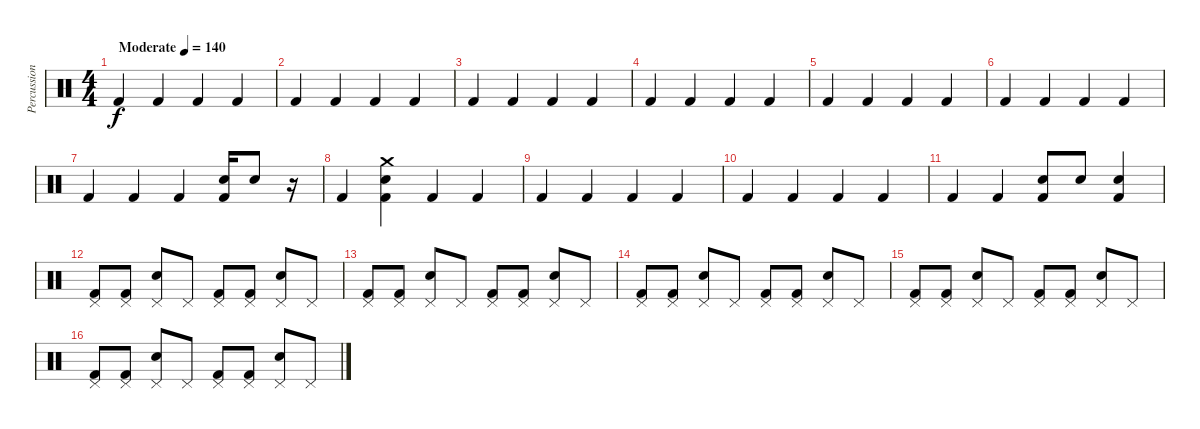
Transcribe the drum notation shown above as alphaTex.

\track ("Percussion" "Percussion") {instrument percussion}
\staff {score}
\articulation defaults
\ts (4 4)
\tempo (140 "Moderate")
\clef neutral
\ks c "Kick (hit) 2".4{dy f} "Kick (hit) 2".4 "Kick (hit) 2".4 "Kick (hit) 2".4
|
"Kick (hit) 2".4 "Kick (hit) 2".4 "Kick (hit) 2".4 "Kick (hit) 2".4 |
"Kick (hit) 2".4 "Kick (hit) 2".4 "Kick (hit) 2".4 "Kick (hit) 2".4 |
"Kick (hit) 2".4 "Kick (hit) 2".4 "Kick (hit) 2".4 "Kick (hit) 2".4 |
"Kick (hit) 2".4 "Kick (hit) 2".4 "Kick (hit) 2".4 "Kick (hit) 2".4 |
"Kick (hit) 2".4 "Kick (hit) 2".4 "Kick (hit) 2".4 "Kick (hit) 2".4 |
"Kick (hit) 2".4 "Kick (hit) 2".4 "Kick (hit) 2".4 ("Snare (hit) 2" "Kick (hit) 2").16 "Snare (hit) 2".8 r.16 |
"Kick (hit) 2".4 ("Crash medium (hit)" "Snare (hit) 2" "Kick (hit) 2").4 "Kick (hit) 2".4 "Kick (hit) 2".4 |
"Kick (hit) 2".4 "Kick (hit) 2".4 "Kick (hit) 2".4 "Kick (hit) 2".4 |
"Kick (hit) 2".4 "Kick (hit) 2".4 "Kick (hit) 2".4 "Kick (hit) 2".4 |
"Kick (hit) 2".4 "Kick (hit) 2".4 ("Snare (hit) 2" "Kick (hit) 2").8 "Snare (hit) 2".8 ("Snare (hit) 2" "Kick (hit) 2").4 |
("Pedal Hi-Hat (hit)" "Kick (hit) 2").8 ("Pedal Hi-Hat (hit)" "Kick (hit) 2").8 ("Pedal Hi-Hat (hit)" "Snare (hit) 2").8 "Pedal Hi-Hat (hit)".8 ("Pedal Hi-Hat (hit)" "Kick (hit) 2").8 ("Pedal Hi-Hat (hit)" "Kick (hit) 2").8 ("Pedal Hi-Hat (hit)" "Snare (hit) 2").8 "Pedal Hi-Hat (hit)".8 |
("Pedal Hi-Hat (hit)" "Kick (hit) 2").8 ("Pedal Hi-Hat (hit)" "Kick (hit) 2").8 ("Pedal Hi-Hat (hit)" "Snare (hit) 2").8 "Pedal Hi-Hat (hit)".8 ("Pedal Hi-Hat (hit)" "Kick (hit) 2").8 ("Pedal Hi-Hat (hit)" "Kick (hit) 2").8 ("Pedal Hi-Hat (hit)" "Snare (hit) 2").8 "Pedal Hi-Hat (hit)".8 |
("Pedal Hi-Hat (hit)" "Kick (hit) 2").8 ("Pedal Hi-Hat (hit)" "Kick (hit) 2").8 ("Pedal Hi-Hat (hit)" "Snare (hit) 2").8 "Pedal Hi-Hat (hit)".8 ("Pedal Hi-Hat (hit)" "Kick (hit) 2").8 ("Pedal Hi-Hat (hit)" "Kick (hit) 2").8 ("Pedal Hi-Hat (hit)" "Snare (hit) 2").8 "Pedal Hi-Hat (hit)".8 |
("Pedal Hi-Hat (hit)" "Kick (hit) 2").8 ("Pedal Hi-Hat (hit)" "Kick (hit) 2").8 ("Pedal Hi-Hat (hit)" "Snare (hit) 2").8 "Pedal Hi-Hat (hit)".8 ("Pedal Hi-Hat (hit)" "Kick (hit) 2").8 ("Pedal Hi-Hat (hit)" "Kick (hit) 2").8 ("Pedal Hi-Hat (hit)" "Snare (hit) 2").8 "Pedal Hi-Hat (hit)".8 |
("Pedal Hi-Hat (hit)" "Kick (hit) 2").8 ("Pedal Hi-Hat (hit)" "Kick (hit) 2").8 ("Pedal Hi-Hat (hit)" "Snare (hit) 2").8 "Pedal Hi-Hat (hit)".8 ("Pedal Hi-Hat (hit)" "Kick (hit) 2").8 ("Pedal Hi-Hat (hit)" "Kick (hit) 2").8 ("Pedal Hi-Hat (hit)" "Snare (hit) 2").8 "Pedal Hi-Hat (hit)".8
